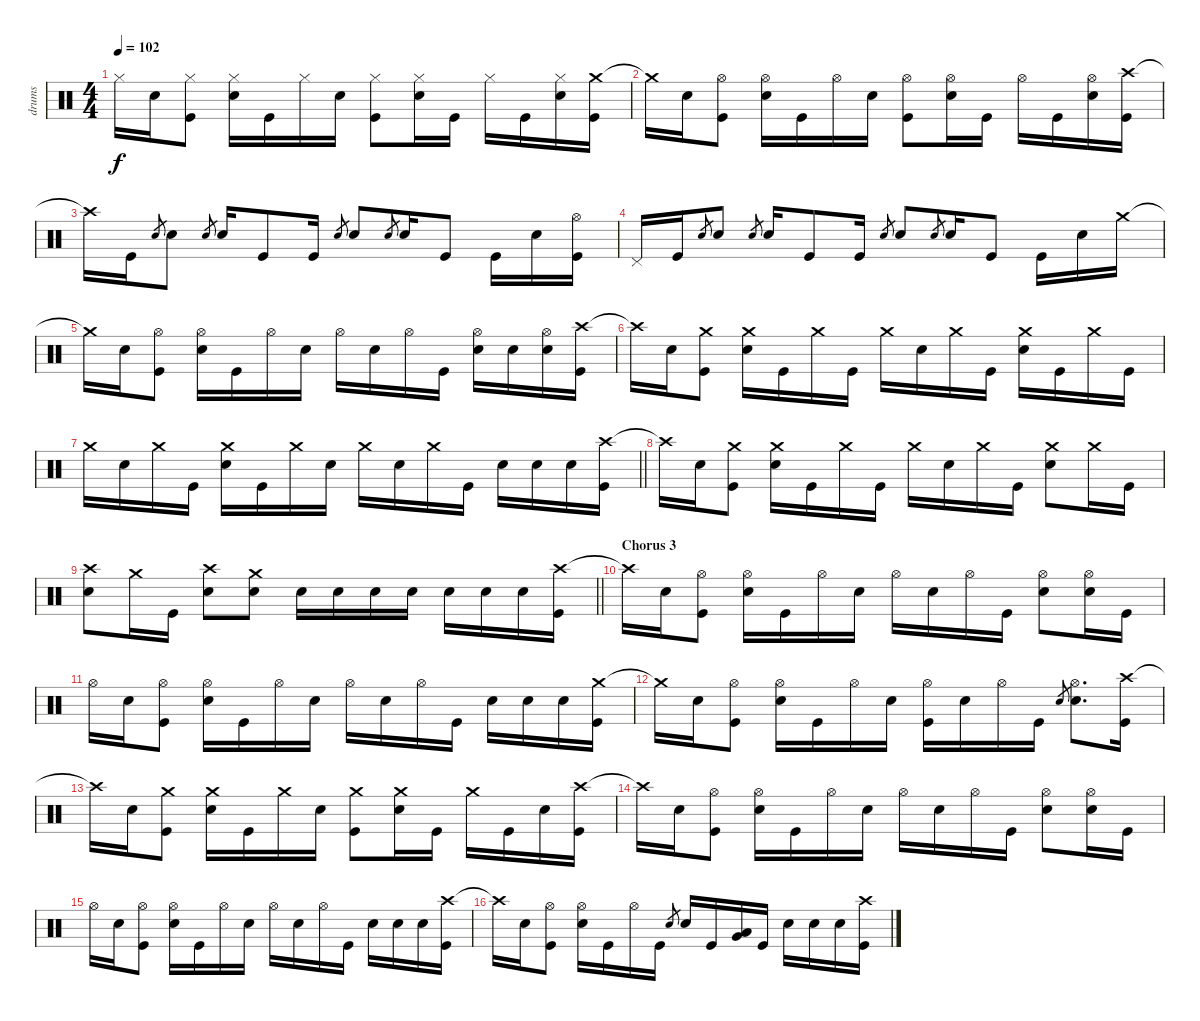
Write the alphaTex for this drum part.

\track ("drums" "drums") {instrument percussion}
\staff {score}
\articulation defaults
\ts (4 4)
\tempo 102
\clef neutral
\ks c "Hi-Hat (closed)".16{dy f} "Snare (hit) 2".16
("Hi-Hat (closed)" "Kick (hit)").8 ("Hi-Hat (closed)" "Snare (hit) 2").16 "Kick (hit)".16 "Hi-Hat (closed)".16 "Snare (hit) 2".16 ("Hi-Hat (closed)" "Kick (hit)").8 ("Hi-Hat (closed)" "Snare (hit) 2").16 "Kick (hit)".16 "Hi-Hat (closed)".16 "Kick (hit)".16 ("Hi-Hat (closed)" "Snare (hit) 2").16 ("Crash medium (hit)" "Kick (hit)").16 |
"Crash medium (hit)"{t}.16 "Snare (hit) 2".16 ("Kick (hit)" "Hi-Hat (open)").8 ("Snare (hit) 2" "Hi-Hat (open)").16 "Kick (hit)".16 "Hi-Hat (open)".16 "Snare (hit) 2".16 ("Kick (hit)" "Hi-Hat (open)").8 ("Hi-Hat (open)" "Snare (hit) 2").16 "Kick (hit)".16 "Hi-Hat (open)".16 "Kick (hit)".16 ("Hi-Hat (open)" "Snare (hit) 2").16 ("Crash high (hit)" "Kick (hit)").16 |
"Crash high (hit)"{t}.16 "Kick (hit)".16 "Snare (hit) 2".8{gr} "Snare (hit) 2".8 "Snare (hit) 2".8{gr} "Snare (hit) 2".16 "Kick (hit)".8 "Kick (hit)".16 "Snare (hit) 2".8{gr} "Snare (hit) 2".8 "Snare (hit) 2".8{gr} "Snare (hit) 2".16 "Kick (hit)".8 "Kick (hit)".16 "Snare (hit) 2".16 ("Kick (hit)" "Hi-Hat (open)").16 |
"Pedal Hi-Hat (hit)".16 "Kick (hit)".16 "Snare (hit) 2".8{gr} "Snare (hit) 2".8 "Snare (hit) 2".8{gr} "Snare (hit) 2".16 "Kick (hit)".8 "Kick (hit)".16 "Snare (hit) 2".8{gr} "Snare (hit) 2".8 "Snare (hit) 2".8{gr} "Snare (hit) 2".16 "Kick (hit)".8 "Kick (hit)".16 "Snare (hit) 2".16 "Crash medium (hit)".16 |
"Crash medium (hit)"{t}.16 "Snare (hit) 2".16 ("Kick (hit)" "Hi-Hat (open)").8 ("Snare (hit) 2" "Hi-Hat (open)").16 "Kick (hit)".16 "Hi-Hat (open)".16 "Snare (hit) 2".16 "Hi-Hat (open)".16 "Snare (hit) 2".16 "Hi-Hat (open)".16 "Kick (hit)".16 ("Hi-Hat (open)" "Snare (hit) 2").16 "Snare (hit) 2".16 ("Hi-Hat (open)" "Snare (hit) 2").16 ("Crash high (hit)" "Kick (hit)").16 |
"Crash high (hit)"{t}.16 "Snare (hit) 2".16 ("Crash medium (hit)" "Kick (hit)").8 ("Crash medium (hit)" "Snare (hit) 2").16 "Kick (hit)".16 "Crash medium (hit)".16 "Kick (hit)".16 "Crash medium (hit)".16 "Snare (hit) 2".16 "Crash medium (hit)".16 "Kick (hit)".16 ("Crash medium (hit)" "Snare (hit) 2").16 "Kick (hit)".16 "Crash medium (hit)".16 "Kick (hit)".16 |
\barLineRight lightlight "Crash medium (hit)".16 "Snare (hit) 2".16 "Crash medium (hit)".16 "Kick (hit)".16
("Crash medium (hit)" "Snare (hit) 2").16 "Kick (hit)".16 "Crash medium (hit)".16 "Snare (hit) 2".16 "Crash medium (hit)".16 "Snare (hit) 2".16 "Crash medium (hit)".16 "Kick (hit)".16 "Snare (hit) 2".16 "Snare (hit) 2".16 "Snare (hit) 2".16 ("Crash high (hit)" "Kick (hit)").16 |
"Crash high (hit)"{t}.16 "Snare (hit) 2".16 ("Crash medium (hit)" "Kick (hit)").8 ("Crash medium (hit)" "Snare (hit) 2").16 "Kick (hit)".16 "Crash medium (hit)".16 "Kick (hit)".16 "Crash medium (hit)".16 "Snare (hit) 2".16 "Crash medium (hit)".16 "Kick (hit)".16 ("Crash medium (hit)" "Snare (hit) 2").8 "Crash medium (hit)".16 "Kick (hit)".16 |
\barLineRight lightlight
("Crash high (hit)" "Snare (hit) 2").8 "Crash medium (hit)".16 "Kick (hit)".16 ("Crash high (hit)" "Snare (hit) 2").8 ("Crash medium (hit)" "Snare (hit) 2").8 "Snare (hit) 2".16 "Snare (hit) 2".16 "Snare (hit) 2".16 "Snare (hit) 2".16 "Snare (hit) 2".16 "Snare (hit) 2".16 "Snare (hit) 2".16 ("Crash high (hit)" "Kick (hit)").16 |
\section ("" "Chorus 3")
"Crash high (hit)"{t}.16 "Snare (hit) 2".16 ("Kick (hit)" "Hi-Hat (open)").8 ("Snare (hit) 2" "Hi-Hat (open)").16 "Kick (hit)".16 "Hi-Hat (open)".16 "Snare (hit) 2".16 "Hi-Hat (open)".16 "Snare (hit) 2".16 "Hi-Hat (open)".16 "Kick (hit)".16 ("Snare (hit) 2" "Hi-Hat (open)").8 ("Snare (hit) 2" "Hi-Hat (open)").16 "Kick (hit)".16 |
"Hi-Hat (open)".16 "Snare (hit) 2".16 ("Kick (hit)" "Hi-Hat (open)").8 ("Snare (hit) 2" "Hi-Hat (open)").16 "Kick (hit)".16 "Hi-Hat (open)".16 "Snare (hit) 2".16 "Hi-Hat (open)".16 "Snare (hit) 2".16 "Hi-Hat (open)".16 "Kick (hit)".16 "Snare (hit) 2".16 "Snare (hit) 2".16 "Snare (hit) 2".16 ("Crash medium (hit)" "Kick (hit)").16 |
"Crash medium (hit)"{t}.16 "Snare (hit) 2".16 ("Kick (hit)" "Hi-Hat (open)").8 ("Snare (hit) 2" "Hi-Hat (open)").16 "Kick (hit)".16 "Hi-Hat (open)".16 "Snare (hit) 2".16 ("Kick (hit)" "Hi-Hat (open)").16 "Snare (hit) 2".16 "Hi-Hat (open)".16 "Kick (hit)".16 "Snare (hit) 2".8{gr} ("Snare (hit) 2" "Hi-Hat (open)").8{d} ("Crash high (hit)" "Kick (hit)").16 |
"Crash high (hit)"{t}.16 "Snare (hit) 2".16 ("Crash medium (hit)" "Kick (hit)").8 ("Crash medium (hit)" "Snare (hit) 2").16 "Kick (hit)".16 "Crash medium (hit)".16 "Snare (hit) 2".16 ("Crash medium (hit)" "Kick (hit)").8 ("Crash medium (hit)" "Snare (hit) 2").16 "Kick (hit)".16 "Crash medium (hit)".16 "Kick (hit)".16 "Snare (hit) 2".16 ("Crash high (hit)" "Kick (hit)").16 |
"Crash high (hit)"{t}.16 "Snare (hit) 2".16 ("Kick (hit)" "Hi-Hat (open)").8 ("Snare (hit) 2" "Hi-Hat (open)").16 "Kick (hit)".16 "Hi-Hat (open)".16 "Snare (hit) 2".16 "Hi-Hat (open)".16 "Snare (hit) 2".16 "Hi-Hat (open)".16 "Kick (hit)".16 ("Snare (hit) 2" "Hi-Hat (open)").8 ("Snare (hit) 2" "Hi-Hat (open)").16 "Kick (hit)".16 |
"Hi-Hat (open)".16 "Snare (hit) 2".16 ("Kick (hit)" "Hi-Hat (open)").8 ("Snare (hit) 2" "Hi-Hat (open)").16 "Kick (hit)".16 "Hi-Hat (open)".16 "Snare (hit) 2".16 "Hi-Hat (open)".16 "Snare (hit) 2".16 "Hi-Hat (open)".16 "Kick (hit)".16 "Snare (hit) 2".16 "Snare (hit) 2".16 "Snare (hit) 2".16 ("Crash high (hit)" "Kick (hit)").16 |
"Crash high (hit)"{t}.16 "Snare (hit) 2".16 ("Kick (hit)" "Hi-Hat (open)").8 ("Snare (hit) 2" "Hi-Hat (open)").16 "Kick (hit)".16 "Hi-Hat (open)".16 "Kick (hit)".16 "Snare (hit) 2".8{gr} "Snare (hit) 2".16 "Kick (hit)".16 ("Very Low Tom (hit)" "Low Tom (hit)").16 "Kick (hit)".16 "Snare (hit) 2".16 "Snare (hit) 2".16 "Snare (hit) 2".16 ("Kick (hit)" "Crash high (hit)").16
